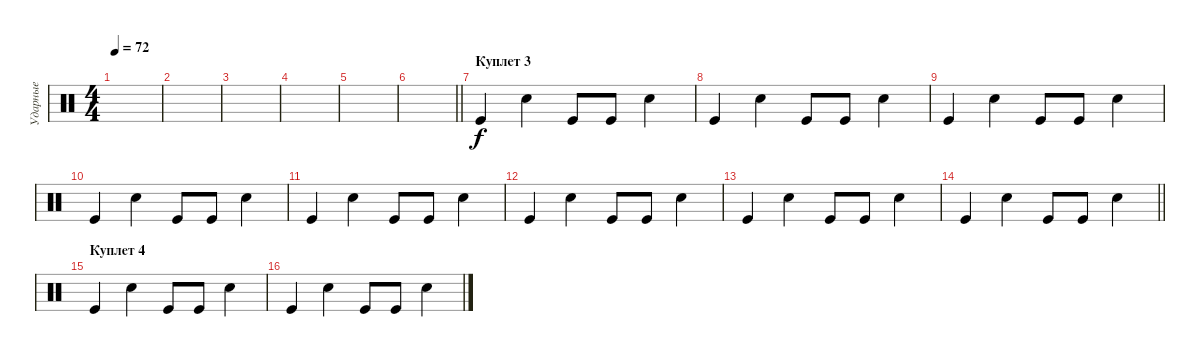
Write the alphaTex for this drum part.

\track ("Ударные" "Ударные") {instrument percussion}
\staff {score}
\articulation defaults
\ts (4 4)
\tempo 72
\clef neutral
\ks c
|
|
|
|
|
\barLineRight lightlight
|
\section ("" "Куплет 3")
"Kick (hit)".4 "Snare (hit) 2".4 "Kick (hit)".8 "Kick (hit)".8 "Snare (hit) 2".4 |
"Kick (hit)".4 "Snare (hit) 2".4 "Kick (hit)".8 "Kick (hit)".8 "Snare (hit) 2".4 |
"Kick (hit)".4 "Snare (hit) 2".4 "Kick (hit)".8 "Kick (hit)".8 "Snare (hit) 2".4 |
"Kick (hit)".4 "Snare (hit) 2".4 "Kick (hit)".8 "Kick (hit)".8 "Snare (hit) 2".4 |
"Kick (hit)".4 "Snare (hit) 2".4 "Kick (hit)".8 "Kick (hit)".8 "Snare (hit) 2".4 |
"Kick (hit)".4 "Snare (hit) 2".4 "Kick (hit)".8 "Kick (hit)".8 "Snare (hit) 2".4 |
"Kick (hit)".4 "Snare (hit) 2".4 "Kick (hit)".8 "Kick (hit)".8 "Snare (hit) 2".4 |
\barLineRight lightlight "Kick (hit)".4 "Snare (hit) 2".4 "Kick (hit)".8 "Kick (hit)".8 "Snare (hit) 2".4
|
\section ("" "Куплет 4")
"Kick (hit)".4 "Snare (hit) 2".4 "Kick (hit)".8 "Kick (hit)".8 "Snare (hit) 2".4 |
"Kick (hit)".4 "Snare (hit) 2".4 "Kick (hit)".8 "Kick (hit)".8 "Snare (hit) 2".4
